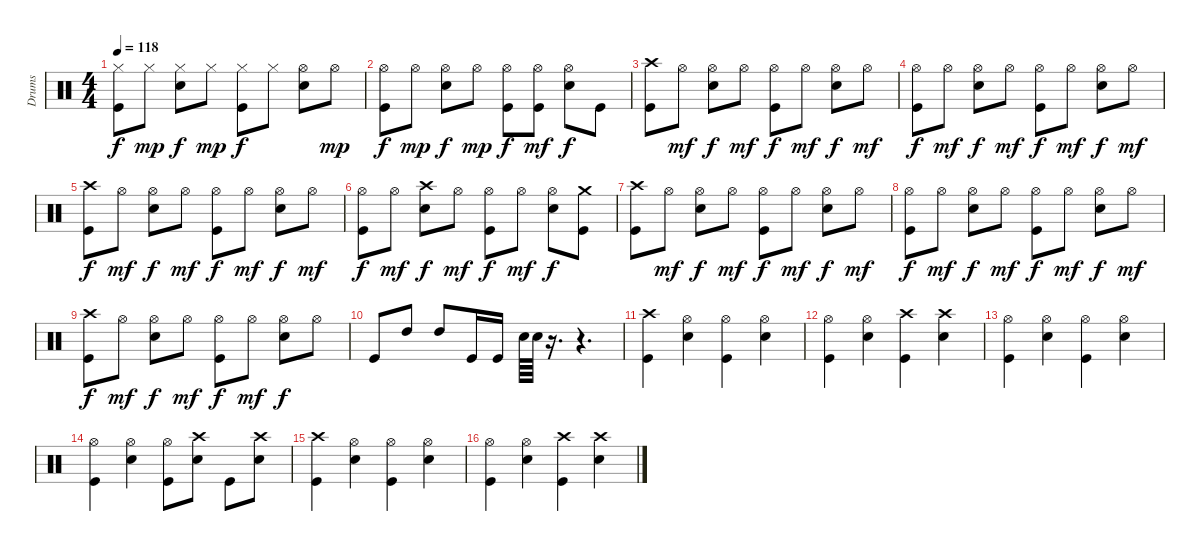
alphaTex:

\track ("Drums" "Drums") {instrument percussion}
\staff {score}
\articulation defaults
\ts (4 4)
\tempo 118
\clef neutral
\ks c
("Hi-Hat (closed)" "Kick (hit)").8{dy f} "Hi-Hat (closed)".8{dy mp} ("Hi-Hat (closed)" "Snare (hit) 2").8{dy f} "Hi-Hat (closed)".8{dy mp} ("Hi-Hat (closed)" "Kick (hit)").8{dy f} "Hi-Hat (closed)".8 ("Hi-Hat (open)" "Snare (hit) 2").8 "Hi-Hat (open)".8{dy mp} |
("Hi-Hat (open)" "Kick (hit)").8{dy f} "Hi-Hat (open)".8{dy mp} ("Hi-Hat (open)" "Snare (hit) 2").8{dy f} "Hi-Hat (open)".8{dy mp} ("Hi-Hat (open)" "Kick (hit)").8{dy f} ("Hi-Hat (open)" "Kick (hit)").8{dy mf} ("Hi-Hat (open)" "Snare (hit) 2").8{dy f} "Kick (hit)".8 |
("Crash high (hit)" "Kick (hit)").8 "Hi-Hat (open)".8{dy mf} ("Hi-Hat (open)" "Snare (hit) 2").8{dy f} "Hi-Hat (open)".8{dy mf} ("Hi-Hat (open)" "Kick (hit)").8{dy f} "Hi-Hat (open)".8{dy mf} ("Hi-Hat (open)" "Snare (hit) 2").8{dy f} "Hi-Hat (open)".8{dy mf} |
("Hi-Hat (open)" "Kick (hit)").8{dy f} "Hi-Hat (open)".8{dy mf} ("Hi-Hat (open)" "Snare (hit) 2").8{dy f} "Hi-Hat (open)".8{dy mf} ("Hi-Hat (open)" "Kick (hit)").8{dy f} "Hi-Hat (open)".8{dy mf} ("Hi-Hat (open)" "Snare (hit) 2").8{dy f} "Hi-Hat (open)".8{dy mf} |
("Crash high (hit)" "Kick (hit)").8{dy f} "Hi-Hat (open)".8{dy mf} ("Hi-Hat (open)" "Snare (hit) 2").8{dy f} "Hi-Hat (open)".8{dy mf} ("Hi-Hat (open)" "Kick (hit)").8{dy f} "Hi-Hat (open)".8{dy mf} ("Hi-Hat (open)" "Snare (hit) 2").8{dy f} "Hi-Hat (open)".8{dy mf} |
("Hi-Hat (open)" "Kick (hit)").8{dy f} "Hi-Hat (open)".8{dy mf} ("Crash high (hit)" "Snare (hit) 2").8{dy f} "Hi-Hat (open)".8{dy mf} ("Hi-Hat (open)" "Kick (hit)").8{dy f} "Hi-Hat (open)".8{dy mf} ("Hi-Hat (open)" "Snare (hit) 2").8{dy f} ("Crash medium (hit)" "Kick (hit)").8 |
("Crash high (hit)" "Kick (hit)").8 "Hi-Hat (open)".8{dy mf} ("Hi-Hat (open)" "Snare (hit) 2").8{dy f} "Hi-Hat (open)".8{dy mf} ("Hi-Hat (open)" "Kick (hit)").8{dy f} "Hi-Hat (open)".8{dy mf} ("Hi-Hat (open)" "Snare (hit) 2").8{dy f} "Hi-Hat (open)".8{dy mf} |
("Hi-Hat (open)" "Kick (hit)").8{dy f} "Hi-Hat (open)".8{dy mf} ("Hi-Hat (open)" "Snare (hit) 2").8{dy f} "Hi-Hat (open)".8{dy mf} ("Hi-Hat (open)" "Kick (hit)").8{dy f} "Hi-Hat (open)".8{dy mf} ("Hi-Hat (open)" "Snare (hit) 2").8{dy f} "Hi-Hat (open)".8{dy mf} |
("Crash high (hit)" "Kick (hit)").8{dy f} "Hi-Hat (open)".8{dy mf} ("Hi-Hat (open)" "Snare (hit) 2").8{dy f} "Hi-Hat (open)".8{dy mf} ("Hi-Hat (open)" "Kick (hit)").8{dy f} "Hi-Hat (open)".8{dy mf} ("Hi-Hat (open)" "Snare (hit) 2").8{dy f} "Hi-Hat (open)".8 |
"Kick (hit)".8 "High Tom (hit)".8 "High Tom (hit)".8 "Kick (hit)".16 "Kick (hit)".16 "Snare (hit) 2".64 "Snare (hit) 2".64 r.16{d} r.4{d} |
("Crash high (hit)" "Kick (hit)").4 ("Hi-Hat (open)" "Snare (hit) 2").4 ("Hi-Hat (open)" "Kick (hit)").4 ("Hi-Hat (open)" "Snare (hit) 2").4 |
("Hi-Hat (open)" "Kick (hit)").4 ("Hi-Hat (open)" "Snare (hit) 2").4 ("Kick (hit)" "Crash high (hit)").4 ("Snare (hit) 2" "Crash high (hit)").4 |
("Hi-Hat (open)" "Kick (hit)").4 ("Hi-Hat (open)" "Snare (hit) 2").4 ("Hi-Hat (open)" "Kick (hit)").4 ("Hi-Hat (open)" "Snare (hit) 2").4 |
("Hi-Hat (open)" "Kick (hit)").4 ("Hi-Hat (open)" "Snare (hit) 2").4 ("Hi-Hat (open)" "Kick (hit)").8 ("Snare (hit) 2" "Crash high (hit)").8 "Kick (hit)".8 ("Snare (hit) 2" "Crash high (hit)").8 |
("Crash high (hit)" "Kick (hit)").4 ("Hi-Hat (open)" "Snare (hit) 2").4 ("Hi-Hat (open)" "Kick (hit)").4 ("Hi-Hat (open)" "Snare (hit) 2").4 |
("Hi-Hat (open)" "Kick (hit)").4 ("Hi-Hat (open)" "Snare (hit) 2").4 ("Kick (hit)" "Crash high (hit)").4 ("Snare (hit) 2" "Crash high (hit)").4
